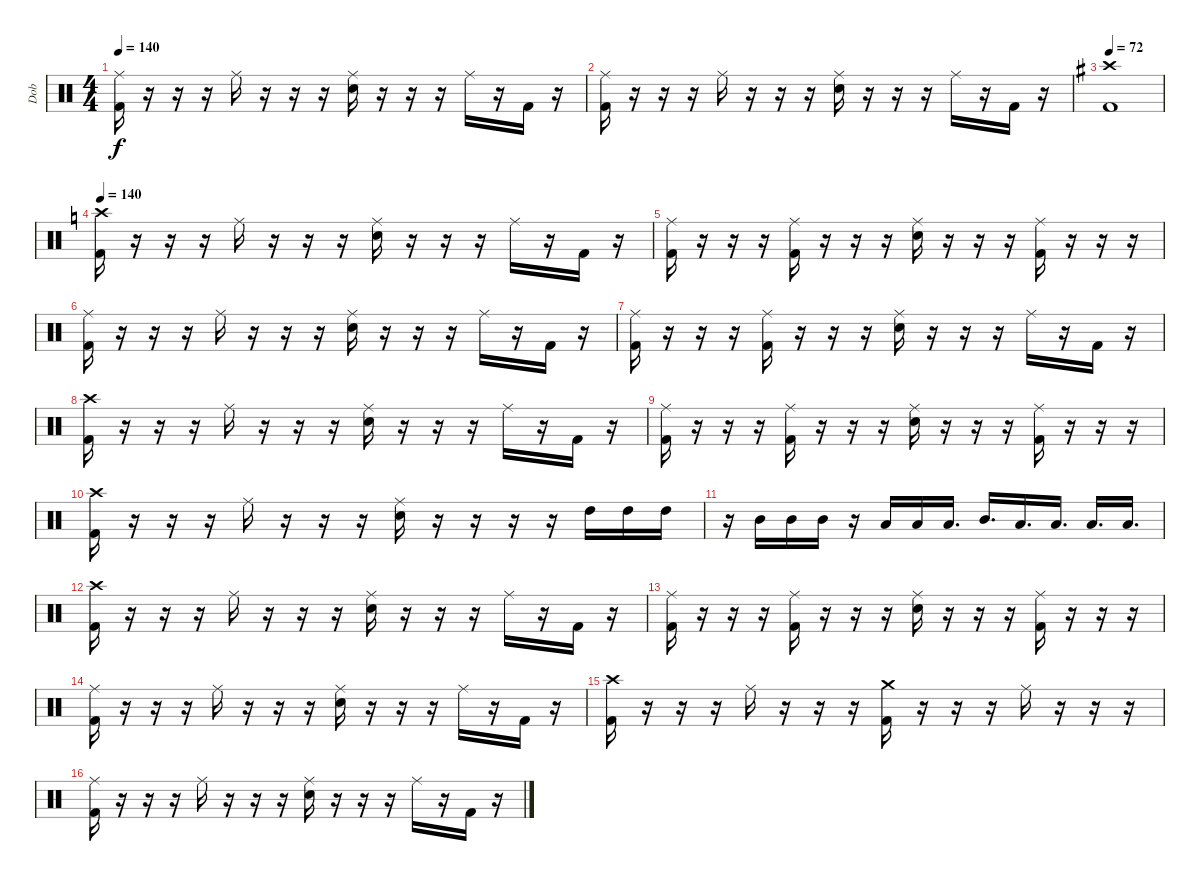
\track ("Dob" "Dob") {instrument percussion}
\staff {score}
\articulation defaults
\ts (4 4)
\tempo 140
\clef neutral
\ks c
("Ride (middle)" "Kick (hit) 2").16{dy f} r.16 r.16 r.16 "Ride (middle)".16 r.16 r.16 r.16 ("Ride (middle)" "Electric Snare (hit)").16 r.16 r.16 r.16 "Ride (middle)".16 r.16 "Kick (hit) 2".16 r.16 |
("Ride (middle)" "Kick (hit) 2").16 r.16 r.16 r.16 "Ride (middle)".16 r.16 r.16 r.16 ("Ride (middle)" "Electric Snare (hit)").16 r.16 r.16 r.16 "Ride (middle)".16 r.16 "Kick (hit) 2".16 r.16 |
\tempo 72
\ks eminor
("Crash high (hit)" "Kick (hit) 2").1 |
\tempo 140
\ks c
("Crash high (hit)" "Kick (hit) 2").16 r.16 r.16 r.16 "Ride (middle)".16 r.16 r.16 r.16 ("Electric Snare (hit)" "Ride (middle)").16 r.16 r.16 r.16 "Ride (middle)".16 r.16 "Kick (hit) 2".16 r.16 |
("Ride (middle)" "Kick (hit) 2").16 r.16 r.16 r.16 ("Ride (middle)" "Kick (hit) 2").16 r.16 r.16 r.16 ("Ride (middle)" "Electric Snare (hit)").16 r.16 r.16 r.16 ("Ride (middle)" "Kick (hit) 2").16 r.16 r.16 r.16 |
("Ride (middle)" "Kick (hit) 2").16 r.16 r.16 r.16 "Ride (middle)".16 r.16 r.16 r.16 ("Ride (middle)" "Electric Snare (hit)").16 r.16 r.16 r.16 "Ride (middle)".16 r.16 "Kick (hit) 2".16 r.16 |
("Ride (middle)" "Kick (hit) 2").16 r.16 r.16 r.16 ("Ride (middle)" "Kick (hit) 2").16 r.16 r.16 r.16 ("Ride (middle)" "Electric Snare (hit)").16 r.16 r.16 r.16 "Ride (middle)".16 r.16 "Kick (hit) 2".16 r.16 |
("Crash high (hit)" "Kick (hit) 2").16 r.16 r.16 r.16 "Ride (middle)".16 r.16 r.16 r.16 ("Electric Snare (hit)" "Ride (middle)").16 r.16 r.16 r.16 "Ride (middle)".16 r.16 "Kick (hit) 2".16 r.16 |
("Ride (middle)" "Kick (hit) 2").16 r.16 r.16 r.16 ("Ride (middle)" "Kick (hit) 2").16 r.16 r.16 r.16 ("Ride (middle)" "Electric Snare (hit)").16 r.16 r.16 r.16 ("Ride (middle)" "Kick (hit) 2").16 r.16 r.16 r.16 |
("Crash high (hit)" "Kick (hit) 2").16 r.16 r.16 r.16 "Ride (middle)".16 r.16 r.16 r.16 ("Electric Snare (hit)" "Ride (middle)").16 r.16 r.16 r.16 r.16 "High Tom (hit)".16 "High Tom (hit)".16 "High Tom (hit)".16 |
r.16 "Mid Tom (hit)".16 "Mid Tom (hit)".16 "Mid Tom (hit)".16 r.16 "Low Tom (hit)".16 "Low Tom (hit)".16 "Low Tom (hit)".16{d} "Mid Tom (hit)".16{d} "Low Tom (hit)".16{d} "Low Floor Tom (hit)".16{d} "Low Floor Tom (hit)".16{d} "Low Floor Tom (hit)".16{d} |
("Crash high (hit)" "Kick (hit) 2").16 r.16 r.16 r.16 "Ride (middle)".16 r.16 r.16 r.16 ("Electric Snare (hit)" "Ride (middle)").16 r.16 r.16 r.16 "Ride (middle)".16 r.16 "Kick (hit) 2".16 r.16 |
("Ride (middle)" "Kick (hit) 2").16 r.16 r.16 r.16 ("Ride (middle)" "Kick (hit) 2").16 r.16 r.16 r.16 ("Ride (middle)" "Electric Snare (hit)").16 r.16 r.16 r.16 ("Ride (middle)" "Kick (hit) 2").16 r.16 r.16 r.16 |
("Ride (middle)" "Kick (hit) 2").16 r.16 r.16 r.16 "Ride (middle)".16 r.16 r.16 r.16 ("Ride (middle)" "Electric Snare (hit)").16 r.16 r.16 r.16 "Ride (middle)".16 r.16 "Kick (hit) 2".16 r.16 |
("Crash high (hit)" "Kick (hit) 2").16 r.16 r.16 r.16 "Ride (middle)".16 r.16 r.16 r.16 ("Crash medium (hit)" "Kick (hit) 2").16 r.16 r.16 r.16 "Ride (middle)".16 r.16 r.16 r.16 |
("Ride (middle)" "Kick (hit) 2").16 r.16 r.16 r.16 "Ride (middle)".16 r.16 r.16 r.16 ("Ride (middle)" "Electric Snare (hit)").16 r.16 r.16 r.16 "Ride (middle)".16 r.16 "Kick (hit) 2".16 r.16
